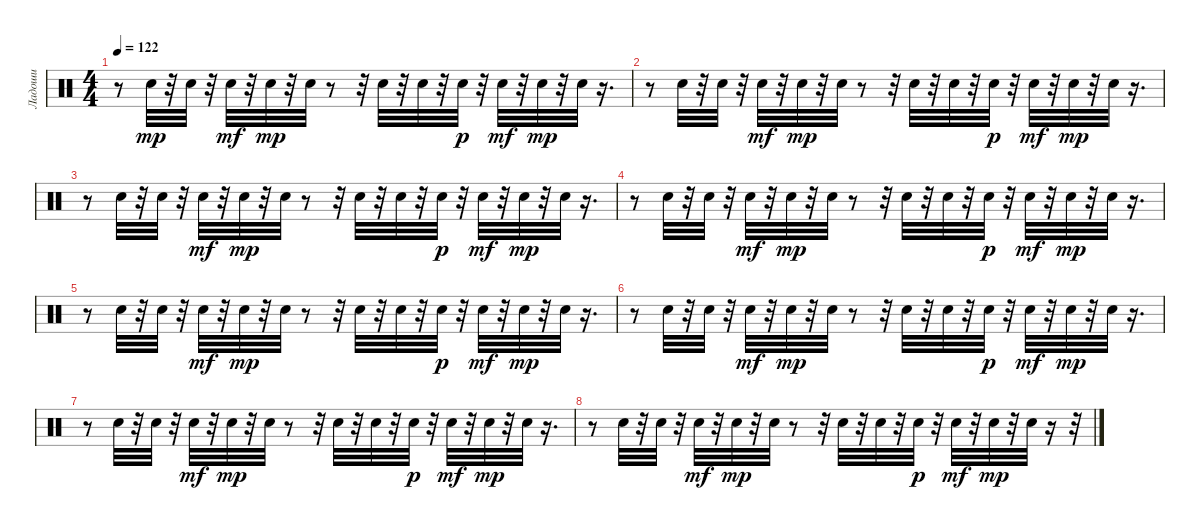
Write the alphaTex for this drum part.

\track ("Ладоши" "Ладоши") {instrument percussion}
\staff {score}
\articulation defaults
\ts (4 4)
\tempo 122
\clef neutral
\ks c
r.8{dy mp} "Hand Clap (hit)".32 r.32 "Hand Clap (hit)".32 r.32 "Hand Clap (hit)".32{dy mf} r.32 "Hand Clap (hit)".32{dy mp} r.32 "Hand Clap (hit)".32 r.8 r.32 "Hand Clap (hit)".32 r.32 "Hand Clap (hit)".32 r.32 "Hand Clap (hit)".32{dy p} r.32 "Hand Clap (hit)".32{dy mf} r.32 "Hand Clap (hit)".32{dy mp} r.32 "Hand Clap (hit)".32 r.16{d} |
r.8 "Hand Clap (hit)".32 r.32 "Hand Clap (hit)".32 r.32 "Hand Clap (hit)".32{dy mf} r.32 "Hand Clap (hit)".32{dy mp} r.32 "Hand Clap (hit)".32 r.8 r.32 "Hand Clap (hit)".32 r.32 "Hand Clap (hit)".32 r.32 "Hand Clap (hit)".32{dy p} r.32 "Hand Clap (hit)".32{dy mf} r.32 "Hand Clap (hit)".32{dy mp} r.32 "Hand Clap (hit)".32 r.16{d} |
r.8 "Hand Clap (hit)".32 r.32 "Hand Clap (hit)".32 r.32 "Hand Clap (hit)".32{dy mf} r.32 "Hand Clap (hit)".32{dy mp} r.32 "Hand Clap (hit)".32 r.8 r.32 "Hand Clap (hit)".32 r.32 "Hand Clap (hit)".32 r.32 "Hand Clap (hit)".32{dy p} r.32 "Hand Clap (hit)".32{dy mf} r.32 "Hand Clap (hit)".32{dy mp} r.32 "Hand Clap (hit)".32 r.16{d} |
r.8 "Hand Clap (hit)".32 r.32 "Hand Clap (hit)".32 r.32 "Hand Clap (hit)".32{dy mf} r.32 "Hand Clap (hit)".32{dy mp} r.32 "Hand Clap (hit)".32 r.8 r.32 "Hand Clap (hit)".32 r.32 "Hand Clap (hit)".32 r.32 "Hand Clap (hit)".32{dy p} r.32 "Hand Clap (hit)".32{dy mf} r.32 "Hand Clap (hit)".32{dy mp} r.32 "Hand Clap (hit)".32 r.16{d} |
r.8 "Hand Clap (hit)".32 r.32 "Hand Clap (hit)".32 r.32 "Hand Clap (hit)".32{dy mf} r.32 "Hand Clap (hit)".32{dy mp} r.32 "Hand Clap (hit)".32 r.8 r.32 "Hand Clap (hit)".32 r.32 "Hand Clap (hit)".32 r.32 "Hand Clap (hit)".32{dy p} r.32 "Hand Clap (hit)".32{dy mf} r.32 "Hand Clap (hit)".32{dy mp} r.32 "Hand Clap (hit)".32 r.16{d} |
r.8 "Hand Clap (hit)".32 r.32 "Hand Clap (hit)".32 r.32 "Hand Clap (hit)".32{dy mf} r.32 "Hand Clap (hit)".32{dy mp} r.32 "Hand Clap (hit)".32 r.8 r.32 "Hand Clap (hit)".32 r.32 "Hand Clap (hit)".32 r.32 "Hand Clap (hit)".32{dy p} r.32 "Hand Clap (hit)".32{dy mf} r.32 "Hand Clap (hit)".32{dy mp} r.32 "Hand Clap (hit)".32 r.16{d} |
r.8 "Hand Clap (hit)".32 r.32 "Hand Clap (hit)".32 r.32 "Hand Clap (hit)".32{dy mf} r.32 "Hand Clap (hit)".32{dy mp} r.32 "Hand Clap (hit)".32 r.8 r.32 "Hand Clap (hit)".32 r.32 "Hand Clap (hit)".32 r.32 "Hand Clap (hit)".32{dy p} r.32 "Hand Clap (hit)".32{dy mf} r.32 "Hand Clap (hit)".32{dy mp} r.32 "Hand Clap (hit)".32 r.16{d} |
r.8 "Hand Clap (hit)".32 r.32 "Hand Clap (hit)".32 r.32 "Hand Clap (hit)".32{dy mf} r.32 "Hand Clap (hit)".32{dy mp} r.32 "Hand Clap (hit)".32 r.8 r.32 "Hand Clap (hit)".32 r.32 "Hand Clap (hit)".32 r.32 "Hand Clap (hit)".32{dy p} r.32 "Hand Clap (hit)".32{dy mf} r.32 "Hand Clap (hit)".32{dy mp} r.32 "Hand Clap (hit)".32 r.16 r.32
